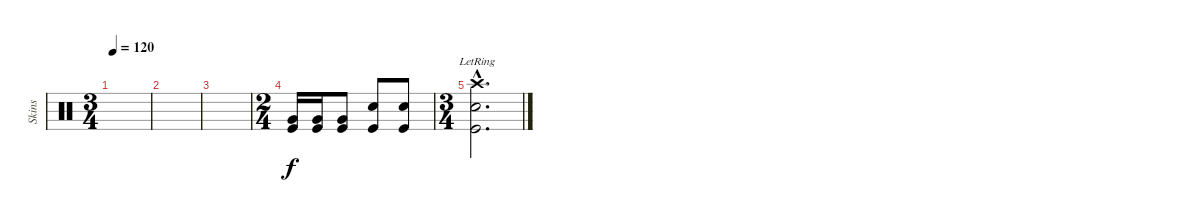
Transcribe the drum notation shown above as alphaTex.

\track ("Skins" "Skins") {instrument percussion}
\staff {score}
\articulation defaults
\ts (3 4)
\tempo 120
\clef neutral
\ks c
|
|
|
\ts (2 4)
("Very Low Tom (hit)" "Kick (hit)").16 ("Very Low Tom (hit)" "Kick (hit)").16 ("Very Low Tom (hit)" "Kick (hit)").8 ("Snare (hit) 2" "Kick (hit)").8 ("Snare (hit) 2" "Kick (hit)").8 |
\ts (3 4)
("Electric Snare (hit)"{hac lr} "Crash high (hit)"{hac lr} "Kick (hit)"{hac}).2{d}
